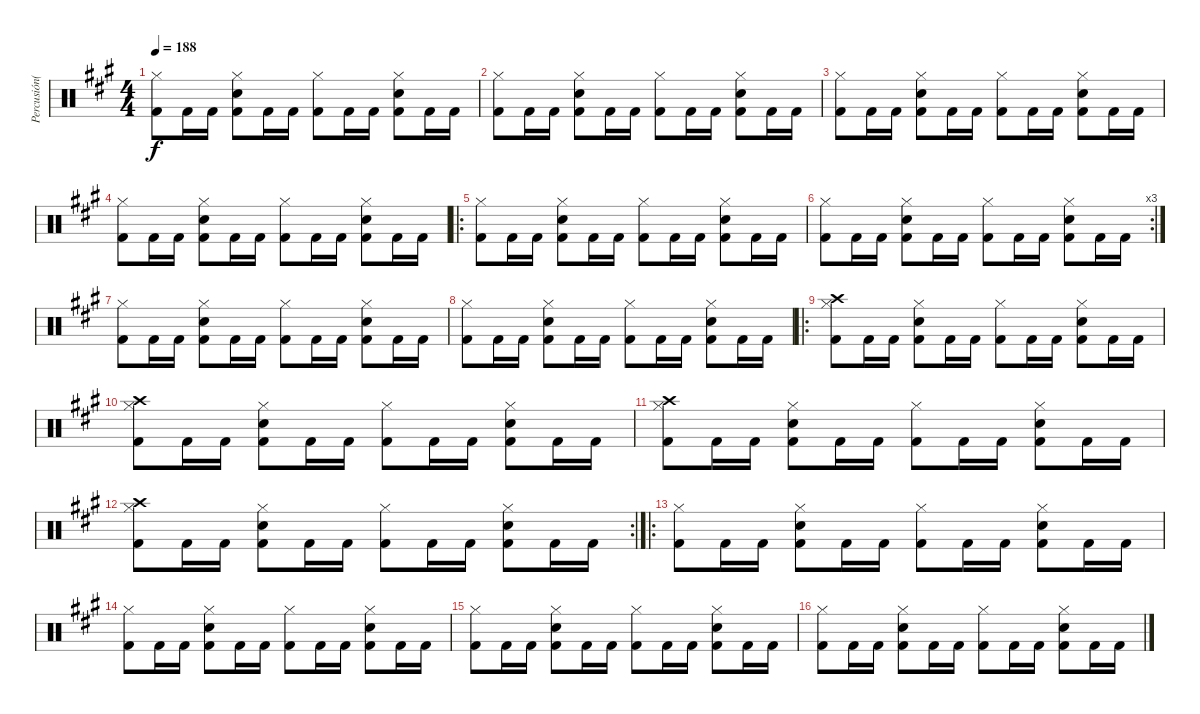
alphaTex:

\track ("Percusión(S.Drover)" "Percusión(") {instrument percussion}
\staff {score}
\articulation defaults
\ts (4 4)
\tempo 188
\clef neutral
\ks a
("Hi-Hat (closed)" "Kick (hit) 2").8{dy f} "Kick (hit) 2".16 "Kick (hit) 2".16 ("Hi-Hat (closed)" "Electric Snare (hit)" "Kick (hit) 2").8 "Kick (hit) 2".16 "Kick (hit) 2".16 ("Hi-Hat (closed)" "Kick (hit) 2").8 "Kick (hit) 2".16 "Kick (hit) 2".16 ("Hi-Hat (closed)" "Electric Snare (hit)" "Kick (hit) 2").8 "Kick (hit) 2".16 "Kick (hit) 2".16 |
("Hi-Hat (closed)" "Kick (hit) 2").8 "Kick (hit) 2".16 "Kick (hit) 2".16 ("Hi-Hat (closed)" "Electric Snare (hit)" "Kick (hit) 2").8 "Kick (hit) 2".16 "Kick (hit) 2".16 ("Hi-Hat (closed)" "Kick (hit) 2").8 "Kick (hit) 2".16 "Kick (hit) 2".16 ("Hi-Hat (closed)" "Electric Snare (hit)" "Kick (hit) 2").8 "Kick (hit) 2".16 "Kick (hit) 2".16 |
("Hi-Hat (closed)" "Kick (hit) 2").8 "Kick (hit) 2".16 "Kick (hit) 2".16 ("Hi-Hat (closed)" "Electric Snare (hit)" "Kick (hit) 2").8 "Kick (hit) 2".16 "Kick (hit) 2".16 ("Hi-Hat (closed)" "Kick (hit) 2").8 "Kick (hit) 2".16 "Kick (hit) 2".16 ("Hi-Hat (closed)" "Electric Snare (hit)" "Kick (hit) 2").8 "Kick (hit) 2".16 "Kick (hit) 2".16 |
("Hi-Hat (closed)" "Kick (hit) 2").8 "Kick (hit) 2".16 "Kick (hit) 2".16 ("Hi-Hat (closed)" "Electric Snare (hit)" "Kick (hit) 2").8 "Kick (hit) 2".16 "Kick (hit) 2".16 ("Hi-Hat (closed)" "Kick (hit) 2").8 "Kick (hit) 2".16 "Kick (hit) 2".16 ("Hi-Hat (closed)" "Electric Snare (hit)" "Kick (hit) 2").8 "Kick (hit) 2".16 "Kick (hit) 2".16 |
\ro
("Hi-Hat (closed)" "Kick (hit) 2").8 "Kick (hit) 2".16 "Kick (hit) 2".16 ("Hi-Hat (closed)" "Electric Snare (hit)" "Kick (hit) 2").8 "Kick (hit) 2".16 "Kick (hit) 2".16 ("Hi-Hat (closed)" "Kick (hit) 2").8 "Kick (hit) 2".16 "Kick (hit) 2".16 ("Hi-Hat (closed)" "Electric Snare (hit)" "Kick (hit) 2").8 "Kick (hit) 2".16 "Kick (hit) 2".16 |
\rc 3
("Hi-Hat (closed)" "Kick (hit) 2").8 "Kick (hit) 2".16 "Kick (hit) 2".16 ("Hi-Hat (closed)" "Electric Snare (hit)" "Kick (hit) 2").8 "Kick (hit) 2".16 "Kick (hit) 2".16 ("Hi-Hat (closed)" "Kick (hit) 2").8 "Kick (hit) 2".16 "Kick (hit) 2".16 ("Hi-Hat (closed)" "Electric Snare (hit)" "Kick (hit) 2").8 "Kick (hit) 2".16 "Kick (hit) 2".16 |
("Hi-Hat (closed)" "Kick (hit) 2").8 "Kick (hit) 2".16 "Kick (hit) 2".16 ("Hi-Hat (closed)" "Electric Snare (hit)" "Kick (hit) 2").8 "Kick (hit) 2".16 "Kick (hit) 2".16 ("Hi-Hat (closed)" "Kick (hit) 2").8 "Kick (hit) 2".16 "Kick (hit) 2".16 ("Hi-Hat (closed)" "Electric Snare (hit)" "Kick (hit) 2").8 "Kick (hit) 2".16 "Kick (hit) 2".16 |
("Hi-Hat (closed)" "Kick (hit) 2").8 "Kick (hit) 2".16 "Kick (hit) 2".16 ("Hi-Hat (closed)" "Electric Snare (hit)" "Kick (hit) 2").8 "Kick (hit) 2".16 "Kick (hit) 2".16 ("Hi-Hat (closed)" "Kick (hit) 2").8 "Kick (hit) 2".16 "Kick (hit) 2".16 ("Hi-Hat (closed)" "Electric Snare (hit)" "Kick (hit) 2").8 "Kick (hit) 2".16 "Kick (hit) 2".16 |
\ro
("Crash high (hit)" "Hi-Hat (closed)" "Kick (hit) 2").8 "Kick (hit) 2".16 "Kick (hit) 2".16 ("Hi-Hat (closed)" "Electric Snare (hit)" "Kick (hit) 2").8 "Kick (hit) 2".16 "Kick (hit) 2".16 ("Hi-Hat (closed)" "Kick (hit) 2").8 "Kick (hit) 2".16 "Kick (hit) 2".16 ("Hi-Hat (closed)" "Electric Snare (hit)" "Kick (hit) 2").8 "Kick (hit) 2".16 "Kick (hit) 2".16 |
("Crash high (hit)" "Hi-Hat (closed)" "Kick (hit) 2").8 "Kick (hit) 2".16 "Kick (hit) 2".16 ("Hi-Hat (closed)" "Electric Snare (hit)" "Kick (hit) 2").8 "Kick (hit) 2".16 "Kick (hit) 2".16 ("Hi-Hat (closed)" "Kick (hit) 2").8 "Kick (hit) 2".16 "Kick (hit) 2".16 ("Hi-Hat (closed)" "Electric Snare (hit)" "Kick (hit) 2").8 "Kick (hit) 2".16 "Kick (hit) 2".16 |
("Crash high (hit)" "Hi-Hat (closed)" "Kick (hit) 2").8 "Kick (hit) 2".16 "Kick (hit) 2".16 ("Hi-Hat (closed)" "Electric Snare (hit)" "Kick (hit) 2").8 "Kick (hit) 2".16 "Kick (hit) 2".16 ("Hi-Hat (closed)" "Kick (hit) 2").8 "Kick (hit) 2".16 "Kick (hit) 2".16 ("Hi-Hat (closed)" "Electric Snare (hit)" "Kick (hit) 2").8 "Kick (hit) 2".16 "Kick (hit) 2".16 |
\rc 2
("Crash high (hit)" "Hi-Hat (closed)" "Kick (hit) 2").8 "Kick (hit) 2".16 "Kick (hit) 2".16 ("Hi-Hat (closed)" "Electric Snare (hit)" "Kick (hit) 2").8 "Kick (hit) 2".16 "Kick (hit) 2".16 ("Hi-Hat (closed)" "Kick (hit) 2").8 "Kick (hit) 2".16 "Kick (hit) 2".16 ("Hi-Hat (closed)" "Electric Snare (hit)" "Kick (hit) 2").8 "Kick (hit) 2".16 "Kick (hit) 2".16 |
\ro
("Hi-Hat (closed)" "Kick (hit) 2").8 "Kick (hit) 2".16 "Kick (hit) 2".16 ("Hi-Hat (closed)" "Electric Snare (hit)" "Kick (hit) 2").8 "Kick (hit) 2".16 "Kick (hit) 2".16 ("Hi-Hat (closed)" "Kick (hit) 2").8 "Kick (hit) 2".16 "Kick (hit) 2".16 ("Hi-Hat (closed)" "Electric Snare (hit)" "Kick (hit) 2").8 "Kick (hit) 2".16 "Kick (hit) 2".16 |
("Hi-Hat (closed)" "Kick (hit) 2").8 "Kick (hit) 2".16 "Kick (hit) 2".16 ("Hi-Hat (closed)" "Electric Snare (hit)" "Kick (hit) 2").8 "Kick (hit) 2".16 "Kick (hit) 2".16 ("Hi-Hat (closed)" "Kick (hit) 2").8 "Kick (hit) 2".16 "Kick (hit) 2".16 ("Hi-Hat (closed)" "Electric Snare (hit)" "Kick (hit) 2").8 "Kick (hit) 2".16 "Kick (hit) 2".16 |
("Hi-Hat (closed)" "Kick (hit) 2").8 "Kick (hit) 2".16 "Kick (hit) 2".16 ("Hi-Hat (closed)" "Electric Snare (hit)" "Kick (hit) 2").8 "Kick (hit) 2".16 "Kick (hit) 2".16 ("Hi-Hat (closed)" "Kick (hit) 2").8 "Kick (hit) 2".16 "Kick (hit) 2".16 ("Hi-Hat (closed)" "Electric Snare (hit)" "Kick (hit) 2").8 "Kick (hit) 2".16 "Kick (hit) 2".16 |
("Hi-Hat (closed)" "Kick (hit) 2").8 "Kick (hit) 2".16 "Kick (hit) 2".16 ("Hi-Hat (closed)" "Electric Snare (hit)" "Kick (hit) 2").8 "Kick (hit) 2".16 "Kick (hit) 2".16 ("Hi-Hat (closed)" "Kick (hit) 2").8 "Kick (hit) 2".16 "Kick (hit) 2".16 ("Hi-Hat (closed)" "Electric Snare (hit)" "Kick (hit) 2").8 "Kick (hit) 2".16 "Kick (hit) 2".16
